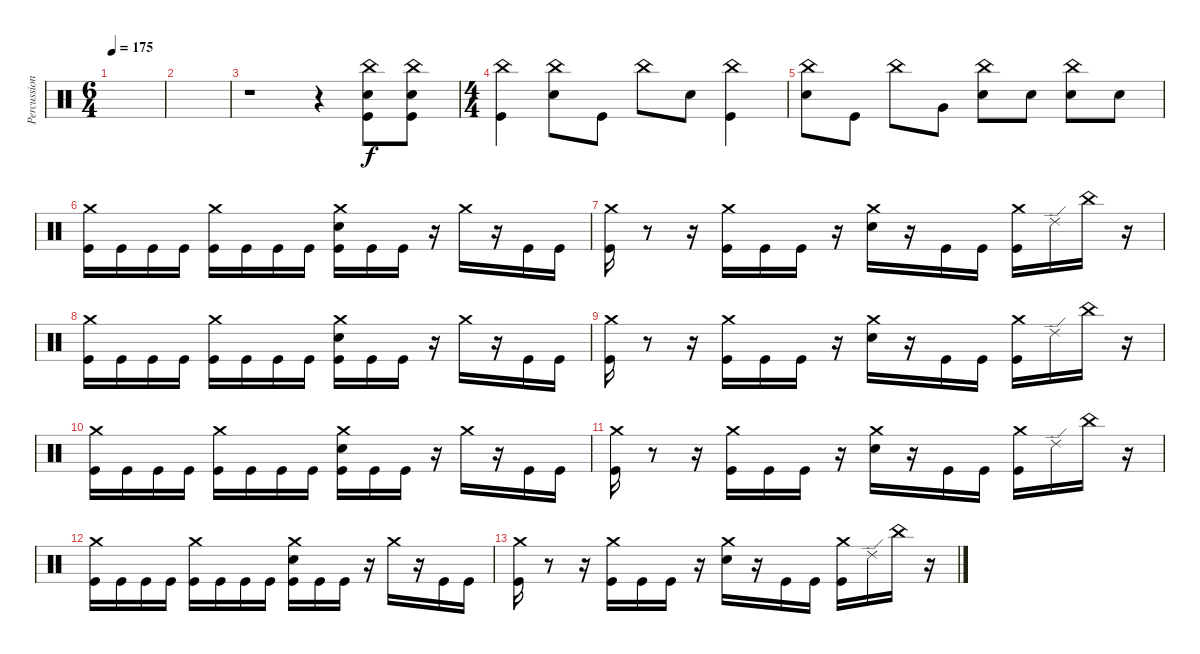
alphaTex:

\track ("Percussion" "Percussion") {instrument percussion}
\staff {score}
\articulation defaults
\ts (6 4)
\tempo 175
\clef neutral
\ks c
|
|
r.1 r.4 ("China (hit)" "Snare (hit) 2" "Kick (hit)").8 ("China (hit)" "Snare (hit) 2" "Kick (hit)").8 |
\ts (4 4)
("China (hit)" "Kick (hit)").4 ("China (hit)" "Snare (hit) 2").8 "Kick (hit)".8 "China (hit)".8 "Snare (hit) 2".8 ("China (hit)" "Kick (hit)").4 |
("China (hit)" "Snare (hit) 2").8 "Kick (hit)".8 "China (hit)".8 "Very Low Tom (hit)".8 ("China (hit)" "Snare (hit) 2").8 "Snare (hit) 2".8 ("China (hit)" "Snare (hit) 2").8 "Snare (hit) 2".8 |
("Crash medium (hit)" "Kick (hit)").16 "Kick (hit)".16 "Kick (hit)".16 "Kick (hit)".16 ("Crash medium (hit)" "Kick (hit)").16 "Kick (hit)".16 "Kick (hit)".16 "Kick (hit)".16 ("Crash medium (hit)" "Snare (hit) 2" "Kick (hit)").16 "Kick (hit)".16 "Kick (hit)".16 r.16 "Crash medium (hit)".16 r.16 "Kick (hit)".16 "Kick (hit)".16 |
("Crash medium (hit)" "Kick (hit)").16 r.8 r.16 ("Crash medium (hit)" "Kick (hit)").16 "Kick (hit)".16 "Kick (hit)".16 r.16 ("Crash medium (hit)" "Snare (hit) 2").16 r.16 "Kick (hit)".16 "Kick (hit)".16 ("Crash medium (hit)" "Kick (hit)").16 "Ride (edge) 2".16 "China (hit)".16 r.16 |
("Crash medium (hit)" "Kick (hit)").16 "Kick (hit)".16 "Kick (hit)".16 "Kick (hit)".16 ("Crash medium (hit)" "Kick (hit)").16 "Kick (hit)".16 "Kick (hit)".16 "Kick (hit)".16 ("Crash medium (hit)" "Snare (hit) 2" "Kick (hit)").16 "Kick (hit)".16 "Kick (hit)".16 r.16 "Crash medium (hit)".16 r.16 "Kick (hit)".16 "Kick (hit)".16 |
("Crash medium (hit)" "Kick (hit)").16 r.8 r.16 ("Crash medium (hit)" "Kick (hit)").16 "Kick (hit)".16 "Kick (hit)".16 r.16 ("Crash medium (hit)" "Snare (hit) 2").16 r.16 "Kick (hit)".16 "Kick (hit)".16 ("Crash medium (hit)" "Kick (hit)").16 "Ride (edge) 2".16 "China (hit)".16 r.16 |
("Crash medium (hit)" "Kick (hit)").16 "Kick (hit)".16 "Kick (hit)".16 "Kick (hit)".16 ("Crash medium (hit)" "Kick (hit)").16 "Kick (hit)".16 "Kick (hit)".16 "Kick (hit)".16 ("Crash medium (hit)" "Snare (hit) 2" "Kick (hit)").16 "Kick (hit)".16 "Kick (hit)".16 r.16 "Crash medium (hit)".16 r.16 "Kick (hit)".16 "Kick (hit)".16 |
("Crash medium (hit)" "Kick (hit)").16 r.8 r.16 ("Crash medium (hit)" "Kick (hit)").16 "Kick (hit)".16 "Kick (hit)".16 r.16 ("Crash medium (hit)" "Snare (hit) 2").16 r.16 "Kick (hit)".16 "Kick (hit)".16 ("Crash medium (hit)" "Kick (hit)").16 "Ride (edge) 2".16 "China (hit)".16 r.16 |
("Crash medium (hit)" "Kick (hit)").16 "Kick (hit)".16 "Kick (hit)".16 "Kick (hit)".16 ("Crash medium (hit)" "Kick (hit)").16 "Kick (hit)".16 "Kick (hit)".16 "Kick (hit)".16 ("Crash medium (hit)" "Snare (hit) 2" "Kick (hit)").16 "Kick (hit)".16 "Kick (hit)".16 r.16 "Crash medium (hit)".16 r.16 "Kick (hit)".16 "Kick (hit)".16 |
("Crash medium (hit)" "Kick (hit)").16 r.8 r.16 ("Crash medium (hit)" "Kick (hit)").16 "Kick (hit)".16 "Kick (hit)".16 r.16 ("Crash medium (hit)" "Snare (hit) 2").16 r.16 "Kick (hit)".16 "Kick (hit)".16 ("Crash medium (hit)" "Kick (hit)").16 "Ride (edge) 2".16 "China (hit)".16 r.16
